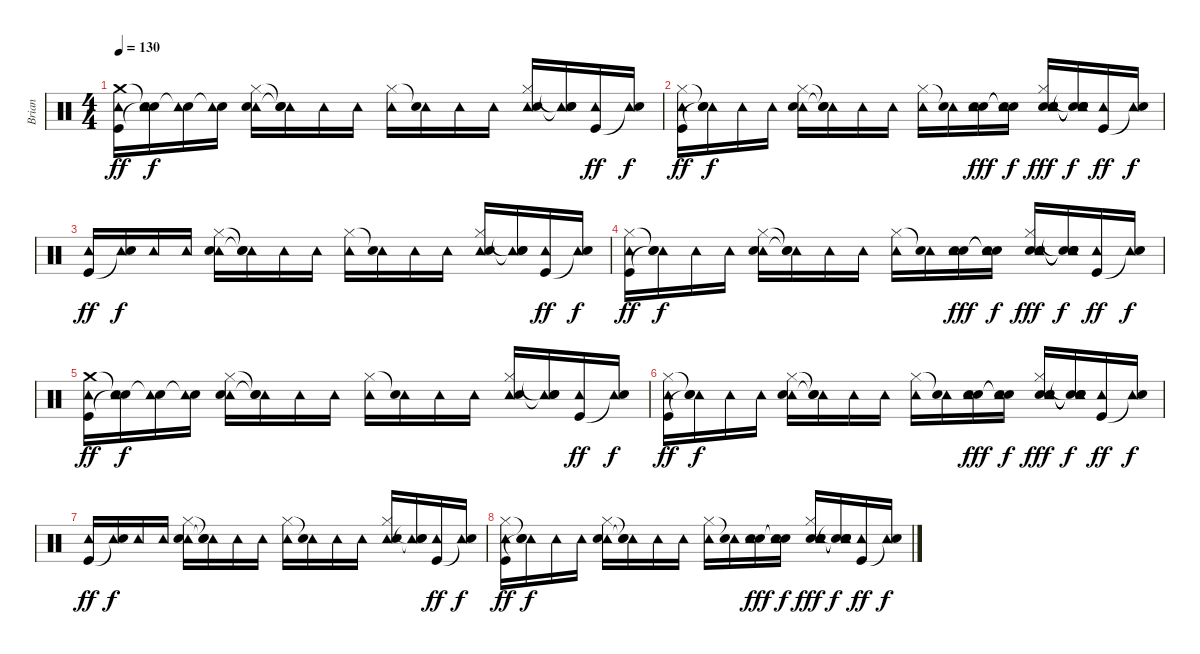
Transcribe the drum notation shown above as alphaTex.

\track ("Brian" "Brian") {instrument percussion}
\staff {score}
\articulation defaults
\ts (4 4)
\tempo 130
\clef neutral
\ks c
("Crash medium (hit)" "Tambourine (hit)" "Kick (hit)").16{dy ff volume 14} ("Snare (hit)"{t} "Tambourine (hit)" "Snare (hit)"{t}).16{dy f} ("Snare (hit)"{t} "Tambourine (hit)").16 ("Snare (hit)"{t} "Tambourine (hit)").16 ("Tambourine (hit)" "Hi-Hat (closed)" "Electric Snare (hit)").16 ("Tambourine (hit)" "Snare (hit)"{t} "Snare (hit)"{t}).16 "Tambourine (hit)".16 "Tambourine (hit)".16 ("Tambourine (hit)" "Hi-Hat (closed)").16{volume 13} ("Tambourine (hit)" "Snare (hit)"{t}).16 "Tambourine (hit)".16 "Tambourine (hit)".16 ("Tambourine (hit)" "Hi-Hat (closed)" "Electric Snare (hit)").16 ("Tambourine (hit)" "Snare (hit)"{t} "Snare (hit)"{t}).16 ("Tambourine (hit)" "Kick (hit)").16{dy ff} ("Tambourine (hit)" "Snare (hit)"{t}).16{dy f} |
("Tambourine (hit)" "Hi-Hat (closed)" "Kick (hit)").16{dy ff volume 12} ("Tambourine (hit)" "Snare (hit)"{t} "Snare (hit)"{t}).16{dy f} "Tambourine (hit)".16 "Tambourine (hit)".16 ("Tambourine (hit)" "Hi-Hat (closed)" "Electric Snare (hit)").16 ("Tambourine (hit)" "Snare (hit)"{t} "Snare (hit)"{t}).16 "Tambourine (hit)".16 "Tambourine (hit)".16 ("Tambourine (hit)" "Hi-Hat (closed)").16{volume 11} ("Tambourine (hit)" "Snare (hit)"{t}).16 ("Hand Clap (hit)" "Tambourine (hit)" "Hand Clap (hit)").16{dy fff} ("Snare (hit)"{t} "Tambourine (hit)" "Snare (hit)"{t}).16{dy f} ("Hand Clap (hit)" "Tambourine (hit)" "Hi-Hat (closed)" "Hand Clap (hit)" "Electric Snare (hit)").16{dy fff} ("Snare (hit)"{t} "Tambourine (hit)" "Snare (hit)"{t} "Snare (hit)"{t} "Snare (hit)"{t}).16{dy f} ("Tambourine (hit)" "Kick (hit)").16{dy ff} ("Tambourine (hit)" "Snare (hit)"{t}).16{dy f} |
("Tambourine (hit)" "Kick (hit)").16{dy ff volume 10} ("Tambourine (hit)" "Snare (hit)"{t}).16{dy f} "Tambourine (hit)".16 "Tambourine (hit)".16 ("Tambourine (hit)" "Hi-Hat (closed)" "Electric Snare (hit)").16 ("Tambourine (hit)" "Snare (hit)"{t} "Snare (hit)"{t}).16 "Tambourine (hit)".16 "Tambourine (hit)".16 ("Tambourine (hit)" "Hi-Hat (closed)").16{volume 9} ("Tambourine (hit)" "Snare (hit)"{t}).16 "Tambourine (hit)".16 "Tambourine (hit)".16 ("Tambourine (hit)" "Hi-Hat (closed)" "Electric Snare (hit)").16 ("Tambourine (hit)" "Snare (hit)"{t} "Snare (hit)"{t}).16 ("Tambourine (hit)" "Kick (hit)").16{dy ff} ("Tambourine (hit)" "Snare (hit)"{t}).16{dy f} |
("Tambourine (hit)" "Hi-Hat (closed)" "Kick (hit)").16{dy ff volume 8} ("Tambourine (hit)" "Snare (hit)"{t} "Snare (hit)"{t}).16{dy f} "Tambourine (hit)".16 "Tambourine (hit)".16 ("Tambourine (hit)" "Hi-Hat (closed)" "Electric Snare (hit)").16 ("Tambourine (hit)" "Snare (hit)"{t} "Snare (hit)"{t}).16 "Tambourine (hit)".16 "Tambourine (hit)".16 ("Tambourine (hit)" "Hi-Hat (closed)").16{volume 7} ("Tambourine (hit)" "Snare (hit)"{t}).16 ("Hand Clap (hit)" "Tambourine (hit)" "Hand Clap (hit)").16{dy fff} ("Snare (hit)"{t} "Tambourine (hit)" "Snare (hit)"{t}).16{dy f} ("Hand Clap (hit)" "Tambourine (hit)" "Hi-Hat (closed)" "Hand Clap (hit)" "Electric Snare (hit)").16{dy fff} ("Snare (hit)"{t} "Tambourine (hit)" "Snare (hit)"{t} "Snare (hit)"{t} "Snare (hit)"{t}).16{dy f} ("Tambourine (hit)" "Kick (hit)").16{dy ff} ("Tambourine (hit)" "Snare (hit)"{t}).16{dy f} |
("Crash medium (hit)" "Tambourine (hit)" "Kick (hit)").16{dy ff volume 6} ("Snare (hit)"{t} "Tambourine (hit)" "Snare (hit)"{t}).16{dy f} ("Snare (hit)"{t} "Tambourine (hit)").16 ("Snare (hit)"{t} "Tambourine (hit)").16 ("Tambourine (hit)" "Hi-Hat (closed)" "Electric Snare (hit)").16 ("Tambourine (hit)" "Snare (hit)"{t} "Snare (hit)"{t}).16 "Tambourine (hit)".16 "Tambourine (hit)".16 ("Tambourine (hit)" "Hi-Hat (closed)").16{volume 5} ("Tambourine (hit)" "Snare (hit)"{t}).16 "Tambourine (hit)".16 "Tambourine (hit)".16 ("Tambourine (hit)" "Hi-Hat (closed)" "Electric Snare (hit)").16 ("Tambourine (hit)" "Snare (hit)"{t} "Snare (hit)"{t}).16 ("Tambourine (hit)" "Kick (hit)").16{dy ff} ("Tambourine (hit)" "Snare (hit)"{t}).16{dy f} |
("Tambourine (hit)" "Hi-Hat (closed)" "Kick (hit)").16{dy ff volume 4} ("Tambourine (hit)" "Snare (hit)"{t} "Snare (hit)"{t}).16{dy f} "Tambourine (hit)".16 "Tambourine (hit)".16 ("Tambourine (hit)" "Hi-Hat (closed)" "Electric Snare (hit)").16 ("Tambourine (hit)" "Snare (hit)"{t} "Snare (hit)"{t}).16 "Tambourine (hit)".16 "Tambourine (hit)".16 ("Tambourine (hit)" "Hi-Hat (closed)").16{volume 3} ("Tambourine (hit)" "Snare (hit)"{t}).16 ("Hand Clap (hit)" "Tambourine (hit)" "Hand Clap (hit)").16{dy fff} ("Snare (hit)"{t} "Tambourine (hit)" "Snare (hit)"{t}).16{dy f} ("Hand Clap (hit)" "Tambourine (hit)" "Hi-Hat (closed)" "Hand Clap (hit)" "Electric Snare (hit)").16{dy fff} ("Snare (hit)"{t} "Tambourine (hit)" "Snare (hit)"{t} "Snare (hit)"{t} "Snare (hit)"{t}).16{dy f} ("Tambourine (hit)" "Kick (hit)").16{dy ff} ("Tambourine (hit)" "Snare (hit)"{t}).16{dy f} |
("Tambourine (hit)" "Kick (hit)").16{dy ff volume 2} ("Tambourine (hit)" "Snare (hit)"{t}).16{dy f} "Tambourine (hit)".16 "Tambourine (hit)".16 ("Tambourine (hit)" "Hi-Hat (closed)" "Electric Snare (hit)").16 ("Tambourine (hit)" "Snare (hit)"{t} "Snare (hit)"{t}).16 "Tambourine (hit)".16 "Tambourine (hit)".16 ("Tambourine (hit)" "Hi-Hat (closed)").16{volume 1} ("Tambourine (hit)" "Snare (hit)"{t}).16 "Tambourine (hit)".16 "Tambourine (hit)".16 ("Tambourine (hit)" "Hi-Hat (closed)" "Electric Snare (hit)").16 ("Tambourine (hit)" "Snare (hit)"{t} "Snare (hit)"{t}).16 ("Tambourine (hit)" "Kick (hit)").16{dy ff} ("Tambourine (hit)" "Snare (hit)"{t}).16{dy f} |
("Tambourine (hit)" "Hi-Hat (closed)" "Kick (hit)").16{dy ff volume 0} ("Tambourine (hit)" "Snare (hit)"{t} "Snare (hit)"{t}).16{dy f} "Tambourine (hit)".16 "Tambourine (hit)".16 ("Tambourine (hit)" "Hi-Hat (closed)" "Electric Snare (hit)").16 ("Tambourine (hit)" "Snare (hit)"{t} "Snare (hit)"{t}).16 "Tambourine (hit)".16 "Tambourine (hit)".16 ("Tambourine (hit)" "Hi-Hat (closed)").16 ("Tambourine (hit)" "Snare (hit)"{t}).16 ("Hand Clap (hit)" "Tambourine (hit)" "Hand Clap (hit)").16{dy fff} ("Snare (hit)"{t} "Tambourine (hit)" "Snare (hit)"{t}).16{dy f} ("Hand Clap (hit)" "Tambourine (hit)" "Hi-Hat (closed)" "Hand Clap (hit)" "Electric Snare (hit)").16{dy fff} ("Snare (hit)"{t} "Tambourine (hit)" "Snare (hit)"{t} "Snare (hit)"{t} "Snare (hit)"{t}).16{dy f} ("Tambourine (hit)" "Kick (hit)").16{dy ff} ("Tambourine (hit)" "Snare (hit)"{t}).16{dy f}
